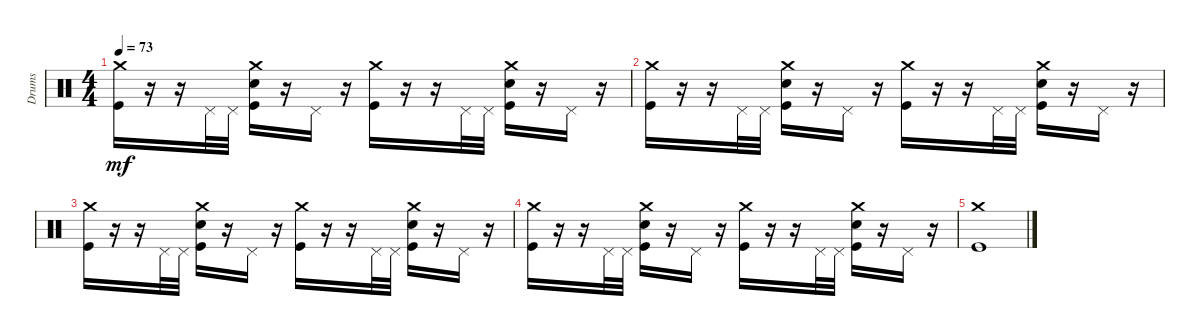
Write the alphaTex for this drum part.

\track ("Drums" "Drums") {instrument percussion}
\staff {score}
\articulation defaults
\ts (4 4)
\tempo 73
\clef neutral
\ks c
("Crash medium (hit)" "Kick (hit)").16{dy mf} r.16 r.16 "Pedal Hi-Hat (hit)".32 "Pedal Hi-Hat (hit)".32 ("Crash medium (hit)" "Snare (hit) 2" "Kick (hit)").16 r.16 "Pedal Hi-Hat (hit)".16 r.16 ("Crash medium (hit)" "Kick (hit)").16 r.16 r.16 "Pedal Hi-Hat (hit)".32 "Pedal Hi-Hat (hit)".32 ("Crash medium (hit)" "Snare (hit) 2" "Kick (hit)").16 r.16 "Pedal Hi-Hat (hit)".16 r.16 |
("Crash medium (hit)" "Kick (hit)").16 r.16 r.16 "Pedal Hi-Hat (hit)".32 "Pedal Hi-Hat (hit)".32 ("Crash medium (hit)" "Snare (hit) 2" "Kick (hit)").16 r.16 "Pedal Hi-Hat (hit)".16 r.16 ("Crash medium (hit)" "Kick (hit)").16 r.16 r.16 "Pedal Hi-Hat (hit)".32 "Pedal Hi-Hat (hit)".32 ("Crash medium (hit)" "Snare (hit) 2" "Kick (hit)").16 r.16 "Pedal Hi-Hat (hit)".16 r.16 |
("Crash medium (hit)" "Kick (hit)").16 r.16 r.16 "Pedal Hi-Hat (hit)".32 "Pedal Hi-Hat (hit)".32 ("Crash medium (hit)" "Snare (hit) 2" "Kick (hit)").16 r.16 "Pedal Hi-Hat (hit)".16 r.16 ("Crash medium (hit)" "Kick (hit)").16 r.16 r.16 "Pedal Hi-Hat (hit)".32 "Pedal Hi-Hat (hit)".32 ("Crash medium (hit)" "Snare (hit) 2" "Kick (hit)").16 r.16 "Pedal Hi-Hat (hit)".16 r.16 |
("Crash medium (hit)" "Kick (hit)").16 r.16 r.16 "Pedal Hi-Hat (hit)".32 "Pedal Hi-Hat (hit)".32 ("Crash medium (hit)" "Snare (hit) 2" "Kick (hit)").16 r.16 "Pedal Hi-Hat (hit)".16 r.16 ("Crash medium (hit)" "Kick (hit)").16 r.16 r.16 "Pedal Hi-Hat (hit)".32 "Pedal Hi-Hat (hit)".32 ("Crash medium (hit)" "Snare (hit) 2" "Kick (hit)").16 r.16 "Pedal Hi-Hat (hit)".16 r.16 |
("Crash medium (hit)" "Kick (hit)").1
